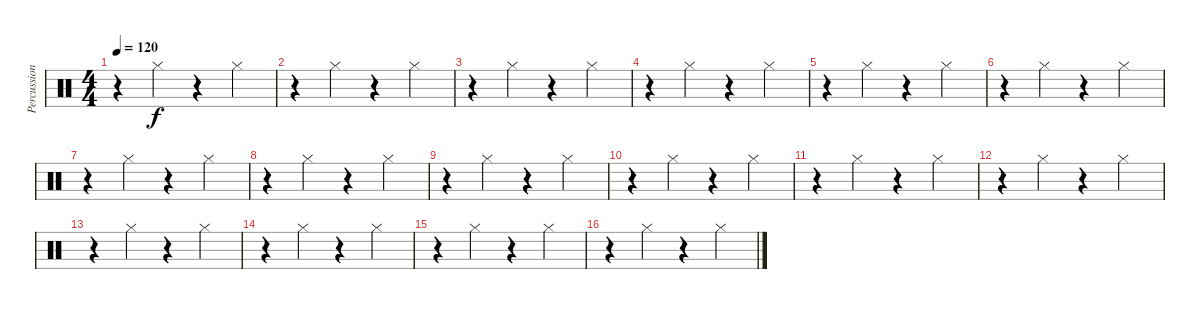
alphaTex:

\track ("Percussion" "Percussion") {instrument percussion}
\staff {score}
\articulation defaults
\ts (4 4)
\tempo 120
\clef neutral
\ks c
r.4{dy f} "Hi-Hat (closed)".4 r.4 "Hi-Hat (closed)".4 |
r.4 "Hi-Hat (closed)".4 r.4 "Hi-Hat (closed)".4 |
r.4 "Hi-Hat (closed)".4 r.4 "Hi-Hat (closed)".4 |
r.4 "Hi-Hat (closed)".4 r.4 "Hi-Hat (closed)".4 |
r.4 "Hi-Hat (closed)".4 r.4 "Hi-Hat (closed)".4 |
r.4 "Hi-Hat (closed)".4 r.4 "Hi-Hat (closed)".4 |
r.4 "Hi-Hat (closed)".4 r.4 "Hi-Hat (closed)".4 |
r.4 "Hi-Hat (closed)".4 r.4 "Hi-Hat (closed)".4 |
r.4 "Hi-Hat (closed)".4 r.4 "Hi-Hat (closed)".4 |
r.4 "Hi-Hat (closed)".4 r.4 "Hi-Hat (closed)".4 |
r.4 "Hi-Hat (closed)".4 r.4 "Hi-Hat (closed)".4 |
r.4 "Hi-Hat (closed)".4 r.4 "Hi-Hat (closed)".4 |
r.4 "Hi-Hat (closed)".4 r.4 "Hi-Hat (closed)".4 |
r.4 "Hi-Hat (closed)".4 r.4 "Hi-Hat (closed)".4 |
r.4 "Hi-Hat (closed)".4 r.4 "Hi-Hat (closed)".4 |
r.4 "Hi-Hat (closed)".4 r.4 "Hi-Hat (closed)".4
